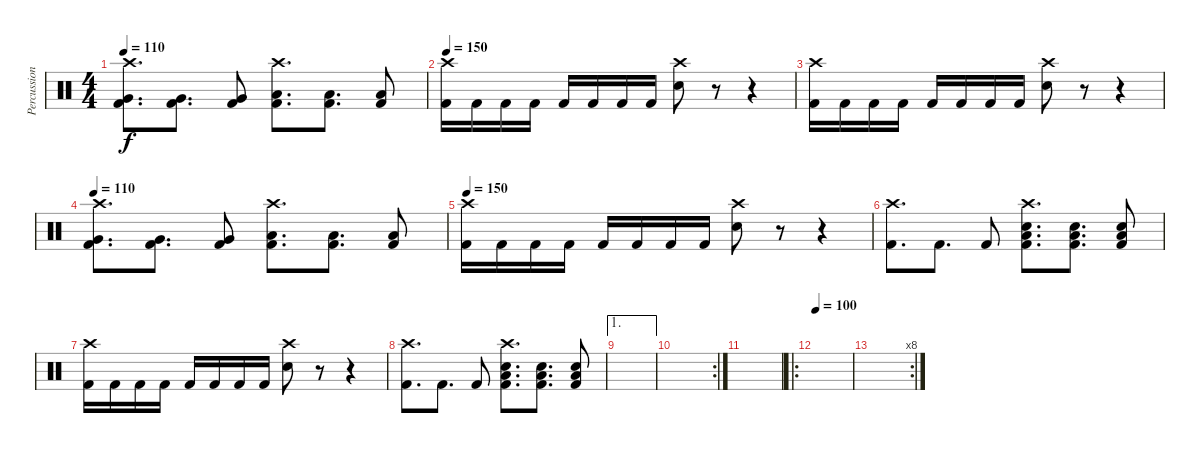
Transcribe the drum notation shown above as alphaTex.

\track ("Percussion" "Percussion") {instrument percussion}
\staff {score}
\articulation defaults
\ts (4 4)
\tempo 110
\clef neutral
\ks c
("Crash high (hit)" "Very Low Tom (hit)" "Kick (hit) 2").8{d dy f} ("Very Low Tom (hit)" "Kick (hit) 2").8{d} ("Very Low Tom (hit)" "Kick (hit) 2").8 ("Crash high (hit)" "Low Floor Tom (hit)" "Kick (hit) 2").8{d} ("Low Floor Tom (hit)" "Kick (hit) 2").8{d} ("Low Floor Tom (hit)" "Kick (hit) 2").8 |
\tempo 150
("Crash high (hit)" "Kick (hit) 2").16 "Kick (hit) 2".16 "Kick (hit) 2".16 "Kick (hit) 2".16 "Kick (hit) 2".16 "Kick (hit) 2".16 "Kick (hit) 2".16 "Kick (hit) 2".16 ("Crash high (hit)" "Electric Snare (hit)").8 r.8 r.4 |
("Crash high (hit)" "Kick (hit) 2").16 "Kick (hit) 2".16 "Kick (hit) 2".16 "Kick (hit) 2".16 "Kick (hit) 2".16 "Kick (hit) 2".16 "Kick (hit) 2".16 "Kick (hit) 2".16 ("Crash high (hit)" "Electric Snare (hit)").8 r.8 r.4 |
\tempo 110
("Crash high (hit)" "Very Low Tom (hit)" "Kick (hit) 2").8{d} ("Very Low Tom (hit)" "Kick (hit) 2").8{d} ("Very Low Tom (hit)" "Kick (hit) 2").8 ("Crash high (hit)" "Low Floor Tom (hit)" "Kick (hit) 2").8{d} ("Low Floor Tom (hit)" "Kick (hit) 2").8{d} ("Low Floor Tom (hit)" "Kick (hit) 2").8 |
\tempo 150
("Crash high (hit)" "Kick (hit) 2").16 "Kick (hit) 2".16 "Kick (hit) 2".16 "Kick (hit) 2".16 "Kick (hit) 2".16 "Kick (hit) 2".16 "Kick (hit) 2".16 "Kick (hit) 2".16 ("Crash high (hit)" "Electric Snare (hit)").8 r.8 r.4 |
("Crash high (hit)" "Kick (hit) 2").8{d} "Kick (hit) 2".8{d} "Kick (hit) 2".8 ("Crash high (hit)" "Electric Snare (hit)" "Low Floor Tom (hit)" "Kick (hit) 2").8{d} ("Electric Snare (hit)" "Low Floor Tom (hit)" "Kick (hit) 2").8{d} ("Electric Snare (hit)" "Low Floor Tom (hit)" "Kick (hit) 2").8 |
("Crash high (hit)" "Kick (hit) 2").16 "Kick (hit) 2".16 "Kick (hit) 2".16 "Kick (hit) 2".16 "Kick (hit) 2".16 "Kick (hit) 2".16 "Kick (hit) 2".16 "Kick (hit) 2".16 ("Crash high (hit)" "Electric Snare (hit)").8 r.8 r.4 |
("Crash high (hit)" "Kick (hit) 2").8{d} "Kick (hit) 2".8{d} "Kick (hit) 2".8 ("Crash high (hit)" "Electric Snare (hit)" "Low Floor Tom (hit)" "Kick (hit) 2").8{d} ("Electric Snare (hit)" "Low Floor Tom (hit)" "Kick (hit) 2").8{d} ("Electric Snare (hit)" "Low Floor Tom (hit)" "Kick (hit) 2").8 |
\ae 1
|
\rc 2
|
|
\ro
\tempo 100
|
\rc 8
